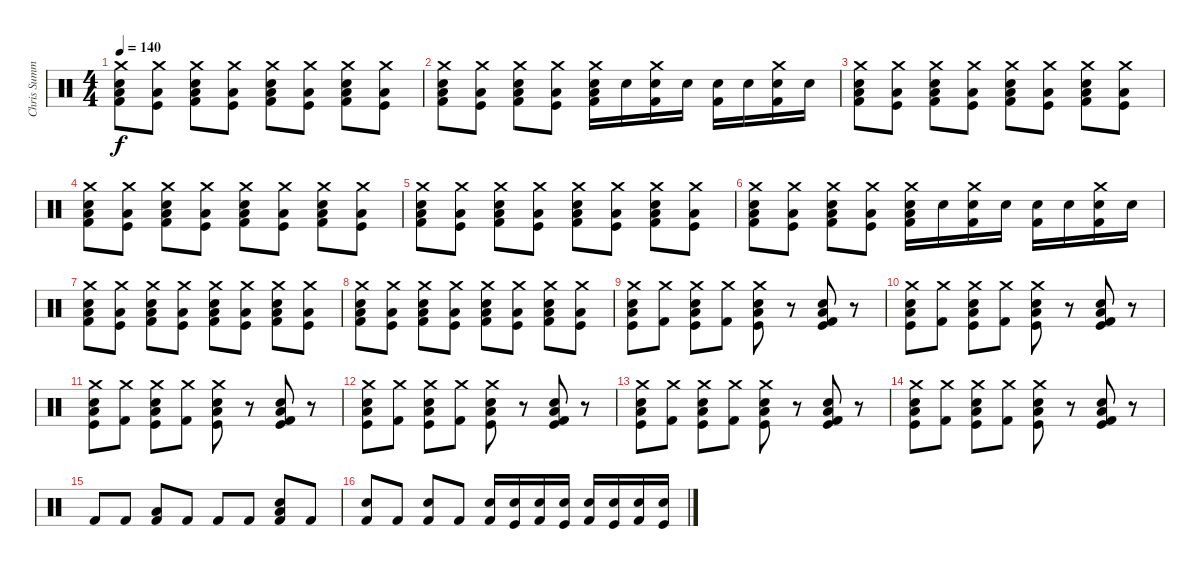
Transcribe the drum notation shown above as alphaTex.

\track ("Chris Summers" "Chris Summ") {instrument percussion}
\staff {score}
\articulation defaults
\ts (4 4)
\tempo 140
\clef neutral
\ks c
("Crash medium (hit)" "Snare (hit) 2" "Low Floor Tom (hit)" "Kick (hit) 2").8{dy f} ("Crash medium (hit)" "Low Floor Tom (hit)" "Kick (hit)").8 ("Crash medium (hit)" "Snare (hit) 2" "Low Floor Tom (hit)" "Kick (hit) 2").8 ("Crash medium (hit)" "Low Floor Tom (hit)" "Kick (hit)").8 ("Crash medium (hit)" "Snare (hit) 2" "Low Floor Tom (hit)" "Kick (hit) 2").8 ("Crash medium (hit)" "Low Floor Tom (hit)" "Kick (hit)").8 ("Crash medium (hit)" "Snare (hit) 2" "Low Floor Tom (hit)" "Kick (hit) 2").8 ("Crash medium (hit)" "Low Floor Tom (hit)" "Kick (hit)").8 |
("Crash medium (hit)" "Snare (hit) 2" "Low Floor Tom (hit)" "Kick (hit) 2").8 ("Crash medium (hit)" "Low Floor Tom (hit)" "Kick (hit)").8 ("Crash medium (hit)" "Snare (hit) 2" "Low Floor Tom (hit)" "Kick (hit) 2").8 ("Crash medium (hit)" "Low Floor Tom (hit)" "Kick (hit)").8 ("Crash medium (hit)" "Snare (hit) 2" "Low Floor Tom (hit)" "Kick (hit) 2").16 "Snare (hit) 2".16 ("Crash medium (hit)" "Snare (hit) 2" "Kick (hit) 2").16 "Snare (hit) 2".16 ("Snare (hit) 2" "Kick (hit) 2").16 "Snare (hit) 2".16 ("Crash medium (hit)" "Kick (hit) 2" "Snare (hit) 2").16 "Snare (hit) 2".16 |
("Crash medium (hit)" "Snare (hit) 2" "Low Floor Tom (hit)" "Kick (hit) 2").8 ("Crash medium (hit)" "Low Floor Tom (hit)" "Kick (hit)").8 ("Crash medium (hit)" "Snare (hit) 2" "Low Floor Tom (hit)" "Kick (hit) 2").8 ("Crash medium (hit)" "Low Floor Tom (hit)" "Kick (hit)").8 ("Crash medium (hit)" "Snare (hit) 2" "Low Floor Tom (hit)" "Kick (hit) 2").8 ("Crash medium (hit)" "Low Floor Tom (hit)" "Kick (hit)").8 ("Crash medium (hit)" "Snare (hit) 2" "Low Floor Tom (hit)" "Kick (hit) 2").8 ("Crash medium (hit)" "Low Floor Tom (hit)" "Kick (hit)").8 |
("Crash medium (hit)" "Snare (hit) 2" "Low Floor Tom (hit)" "Kick (hit) 2").8 ("Crash medium (hit)" "Low Floor Tom (hit)" "Kick (hit)").8 ("Crash medium (hit)" "Snare (hit) 2" "Low Floor Tom (hit)" "Kick (hit) 2").8 ("Crash medium (hit)" "Low Floor Tom (hit)" "Kick (hit)").8 ("Crash medium (hit)" "Snare (hit) 2" "Low Floor Tom (hit)" "Kick (hit) 2").8 ("Crash medium (hit)" "Low Floor Tom (hit)" "Kick (hit)").8 ("Crash medium (hit)" "Snare (hit) 2" "Low Floor Tom (hit)" "Kick (hit) 2").8 ("Crash medium (hit)" "Low Floor Tom (hit)" "Kick (hit)").8 |
("Crash medium (hit)" "Snare (hit) 2" "Low Floor Tom (hit)" "Kick (hit) 2").8 ("Crash medium (hit)" "Low Floor Tom (hit)" "Kick (hit)").8 ("Crash medium (hit)" "Snare (hit) 2" "Low Floor Tom (hit)" "Kick (hit) 2").8 ("Crash medium (hit)" "Low Floor Tom (hit)" "Kick (hit)").8 ("Crash medium (hit)" "Snare (hit) 2" "Low Floor Tom (hit)" "Kick (hit) 2").8 ("Crash medium (hit)" "Low Floor Tom (hit)" "Kick (hit)").8 ("Crash medium (hit)" "Snare (hit) 2" "Low Floor Tom (hit)" "Kick (hit) 2").8 ("Crash medium (hit)" "Low Floor Tom (hit)" "Kick (hit)").8 |
("Crash medium (hit)" "Snare (hit) 2" "Low Floor Tom (hit)" "Kick (hit) 2").8 ("Crash medium (hit)" "Low Floor Tom (hit)" "Kick (hit)").8 ("Crash medium (hit)" "Snare (hit) 2" "Low Floor Tom (hit)" "Kick (hit) 2").8 ("Crash medium (hit)" "Low Floor Tom (hit)" "Kick (hit)").8 ("Crash medium (hit)" "Snare (hit) 2" "Low Floor Tom (hit)" "Kick (hit) 2").16 "Snare (hit) 2".16 ("Crash medium (hit)" "Snare (hit) 2" "Kick (hit) 2").16 "Snare (hit) 2".16 ("Snare (hit) 2" "Kick (hit) 2").16 "Snare (hit) 2".16 ("Crash medium (hit)" "Kick (hit) 2" "Snare (hit) 2").16 "Snare (hit) 2".16 |
("Crash medium (hit)" "Snare (hit) 2" "Low Floor Tom (hit)" "Kick (hit) 2").8 ("Crash medium (hit)" "Low Floor Tom (hit)" "Kick (hit)").8 ("Crash medium (hit)" "Snare (hit) 2" "Low Floor Tom (hit)" "Kick (hit) 2").8 ("Crash medium (hit)" "Low Floor Tom (hit)" "Kick (hit)").8 ("Crash medium (hit)" "Snare (hit) 2" "Low Floor Tom (hit)" "Kick (hit) 2").8 ("Crash medium (hit)" "Low Floor Tom (hit)" "Kick (hit)").8 ("Crash medium (hit)" "Snare (hit) 2" "Low Floor Tom (hit)" "Kick (hit) 2").8 ("Crash medium (hit)" "Low Floor Tom (hit)" "Kick (hit)").8 |
("Crash medium (hit)" "Snare (hit) 2" "Low Floor Tom (hit)" "Kick (hit) 2").8 ("Crash medium (hit)" "Low Floor Tom (hit)" "Kick (hit)").8 ("Crash medium (hit)" "Snare (hit) 2" "Low Floor Tom (hit)" "Kick (hit) 2").8 ("Crash medium (hit)" "Low Floor Tom (hit)" "Kick (hit)").8 ("Crash medium (hit)" "Snare (hit) 2" "Low Floor Tom (hit)" "Kick (hit) 2").8 ("Crash medium (hit)" "Low Floor Tom (hit)" "Kick (hit)").8 ("Crash medium (hit)" "Snare (hit) 2" "Low Floor Tom (hit)" "Kick (hit) 2").8 ("Crash medium (hit)" "Low Floor Tom (hit)" "Kick (hit)").8 |
("Crash medium (hit)" "Low Floor Tom (hit)" "Snare (hit) 2" "Kick (hit)").8 ("Crash medium (hit)" "Kick (hit) 2").8 ("Crash medium (hit)" "Low Floor Tom (hit)" "Snare (hit) 2" "Kick (hit)").8 ("Crash medium (hit)" "Kick (hit) 2").8 ("Crash medium (hit)" "Low Floor Tom (hit)" "Snare (hit) 2" "Kick (hit)").8 r.8 ("Kick (hit)" "Low Floor Tom (hit)" "Snare (hit) 2" "Kick (hit) 2").8 r.8 |
("Crash medium (hit)" "Low Floor Tom (hit)" "Snare (hit) 2" "Kick (hit)").8 ("Crash medium (hit)" "Kick (hit) 2").8 ("Crash medium (hit)" "Low Floor Tom (hit)" "Snare (hit) 2" "Kick (hit)").8 ("Crash medium (hit)" "Kick (hit) 2").8 ("Crash medium (hit)" "Low Floor Tom (hit)" "Snare (hit) 2" "Kick (hit)").8 r.8 ("Kick (hit)" "Low Floor Tom (hit)" "Snare (hit) 2" "Kick (hit) 2").8 r.8 |
("Crash medium (hit)" "Low Floor Tom (hit)" "Snare (hit) 2" "Kick (hit)").8 ("Crash medium (hit)" "Kick (hit) 2").8 ("Crash medium (hit)" "Low Floor Tom (hit)" "Snare (hit) 2" "Kick (hit)").8 ("Crash medium (hit)" "Kick (hit) 2").8 ("Crash medium (hit)" "Low Floor Tom (hit)" "Snare (hit) 2" "Kick (hit)").8 r.8 ("Kick (hit)" "Low Floor Tom (hit)" "Snare (hit) 2" "Kick (hit) 2").8 r.8 |
("Crash medium (hit)" "Low Floor Tom (hit)" "Snare (hit) 2" "Kick (hit)").8 ("Crash medium (hit)" "Kick (hit) 2").8 ("Crash medium (hit)" "Low Floor Tom (hit)" "Snare (hit) 2" "Kick (hit)").8 ("Crash medium (hit)" "Kick (hit) 2").8 ("Crash medium (hit)" "Low Floor Tom (hit)" "Snare (hit) 2" "Kick (hit)").8 r.8 ("Kick (hit)" "Low Floor Tom (hit)" "Snare (hit) 2" "Kick (hit) 2").8 r.8 |
("Crash medium (hit)" "Low Floor Tom (hit)" "Snare (hit) 2" "Kick (hit)").8 ("Crash medium (hit)" "Kick (hit) 2").8 ("Crash medium (hit)" "Low Floor Tom (hit)" "Snare (hit) 2" "Kick (hit)").8 ("Crash medium (hit)" "Kick (hit) 2").8 ("Crash medium (hit)" "Low Floor Tom (hit)" "Snare (hit) 2" "Kick (hit)").8 r.8 ("Kick (hit)" "Low Floor Tom (hit)" "Snare (hit) 2" "Kick (hit) 2").8 r.8 |
("Crash medium (hit)" "Low Floor Tom (hit)" "Snare (hit) 2" "Kick (hit)").8 ("Crash medium (hit)" "Kick (hit) 2").8 ("Crash medium (hit)" "Low Floor Tom (hit)" "Snare (hit) 2" "Kick (hit)").8 ("Crash medium (hit)" "Kick (hit) 2").8 ("Crash medium (hit)" "Low Floor Tom (hit)" "Snare (hit) 2" "Kick (hit)").8 r.8 ("Kick (hit)" "Low Floor Tom (hit)" "Snare (hit) 2" "Kick (hit) 2").8 r.8 |
"Kick (hit) 2".8 "Kick (hit) 2".8 ("Low Floor Tom (hit)" "Kick (hit) 2").8 "Kick (hit) 2".8 "Kick (hit) 2".8 "Kick (hit) 2".8 ("Snare (hit) 2" "Low Floor Tom (hit)" "Kick (hit) 2").8 "Kick (hit) 2".8 |
("Snare (hit) 2" "Kick (hit) 2").8 "Kick (hit) 2".8 ("Kick (hit) 2" "Snare (hit) 2").8 "Kick (hit) 2".8 ("Snare (hit) 2" "Kick (hit) 2").16 ("Snare (hit) 2" "Kick (hit)").16 ("Snare (hit) 2" "Kick (hit) 2").16 ("Snare (hit) 2" "Kick (hit)").16 ("Snare (hit) 2" "Kick (hit) 2").16 ("Snare (hit) 2" "Kick (hit)").16 ("Snare (hit) 2" "Kick (hit) 2").16 ("Snare (hit) 2" "Kick (hit)").16
